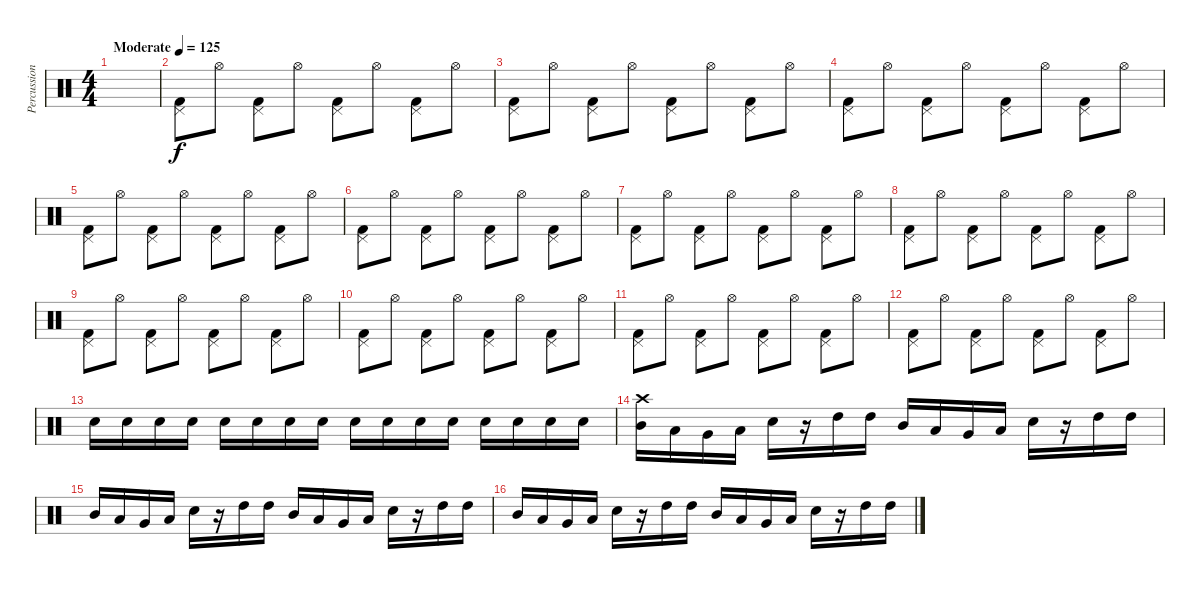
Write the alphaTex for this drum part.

\track ("Percussion" "Percussion") {instrument percussion}
\staff {score}
\articulation defaults
\ts (4 4)
\tempo (125 "Moderate")
\clef neutral
\ks c
|
("Pedal Hi-Hat (hit)" "Kick (hit) 2").8 "Hi-Hat (open)".8 ("Pedal Hi-Hat (hit)" "Kick (hit) 2").8 "Hi-Hat (open)".8 ("Pedal Hi-Hat (hit)" "Kick (hit) 2").8 "Hi-Hat (open)".8 ("Pedal Hi-Hat (hit)" "Kick (hit) 2").8 "Hi-Hat (open)".8 |
("Pedal Hi-Hat (hit)" "Kick (hit) 2").8 "Hi-Hat (open)".8 ("Pedal Hi-Hat (hit)" "Kick (hit) 2").8 "Hi-Hat (open)".8 ("Pedal Hi-Hat (hit)" "Kick (hit) 2").8 "Hi-Hat (open)".8 ("Pedal Hi-Hat (hit)" "Kick (hit) 2").8 "Hi-Hat (open)".8 |
("Pedal Hi-Hat (hit)" "Kick (hit) 2").8 "Hi-Hat (open)".8 ("Pedal Hi-Hat (hit)" "Kick (hit) 2").8 "Hi-Hat (open)".8 ("Pedal Hi-Hat (hit)" "Kick (hit) 2").8 "Hi-Hat (open)".8 ("Pedal Hi-Hat (hit)" "Kick (hit) 2").8 "Hi-Hat (open)".8 |
("Pedal Hi-Hat (hit)" "Kick (hit) 2").8 "Hi-Hat (open)".8 ("Pedal Hi-Hat (hit)" "Kick (hit) 2").8 "Hi-Hat (open)".8 ("Pedal Hi-Hat (hit)" "Kick (hit) 2").8 "Hi-Hat (open)".8 ("Pedal Hi-Hat (hit)" "Kick (hit) 2").8 "Hi-Hat (open)".8 |
("Pedal Hi-Hat (hit)" "Kick (hit) 2").8 "Hi-Hat (open)".8 ("Pedal Hi-Hat (hit)" "Kick (hit) 2").8 "Hi-Hat (open)".8 ("Pedal Hi-Hat (hit)" "Kick (hit) 2").8 "Hi-Hat (open)".8 ("Pedal Hi-Hat (hit)" "Kick (hit) 2").8 "Hi-Hat (open)".8 |
("Pedal Hi-Hat (hit)" "Kick (hit) 2").8 "Hi-Hat (open)".8 ("Pedal Hi-Hat (hit)" "Kick (hit) 2").8 "Hi-Hat (open)".8 ("Pedal Hi-Hat (hit)" "Kick (hit) 2").8 "Hi-Hat (open)".8 ("Pedal Hi-Hat (hit)" "Kick (hit) 2").8 "Hi-Hat (open)".8 |
("Pedal Hi-Hat (hit)" "Kick (hit) 2").8 "Hi-Hat (open)".8 ("Pedal Hi-Hat (hit)" "Kick (hit) 2").8 "Hi-Hat (open)".8 ("Pedal Hi-Hat (hit)" "Kick (hit) 2").8 "Hi-Hat (open)".8 ("Pedal Hi-Hat (hit)" "Kick (hit) 2").8 "Hi-Hat (open)".8 |
("Pedal Hi-Hat (hit)" "Kick (hit) 2").8 "Hi-Hat (open)".8 ("Pedal Hi-Hat (hit)" "Kick (hit) 2").8 "Hi-Hat (open)".8 ("Pedal Hi-Hat (hit)" "Kick (hit) 2").8 "Hi-Hat (open)".8 ("Pedal Hi-Hat (hit)" "Kick (hit) 2").8 "Hi-Hat (open)".8 |
("Pedal Hi-Hat (hit)" "Kick (hit) 2").8 "Hi-Hat (open)".8 ("Pedal Hi-Hat (hit)" "Kick (hit) 2").8 "Hi-Hat (open)".8 ("Pedal Hi-Hat (hit)" "Kick (hit) 2").8 "Hi-Hat (open)".8 ("Pedal Hi-Hat (hit)" "Kick (hit) 2").8 "Hi-Hat (open)".8 |
("Pedal Hi-Hat (hit)" "Kick (hit) 2").8 "Hi-Hat (open)".8 ("Pedal Hi-Hat (hit)" "Kick (hit) 2").8 "Hi-Hat (open)".8 ("Pedal Hi-Hat (hit)" "Kick (hit) 2").8 "Hi-Hat (open)".8 ("Pedal Hi-Hat (hit)" "Kick (hit) 2").8 "Hi-Hat (open)".8 |
("Pedal Hi-Hat (hit)" "Kick (hit) 2").8 "Hi-Hat (open)".8 ("Pedal Hi-Hat (hit)" "Kick (hit) 2").8 "Hi-Hat (open)".8 ("Pedal Hi-Hat (hit)" "Kick (hit) 2").8 "Hi-Hat (open)".8 ("Pedal Hi-Hat (hit)" "Kick (hit) 2").8 "Hi-Hat (open)".8 |
"Electric Snare (hit)".16 "Electric Snare (hit)".16 "Electric Snare (hit)".16 "Electric Snare (hit)".16 "Electric Snare (hit)".16 "Electric Snare (hit)".16 "Electric Snare (hit)".16 "Electric Snare (hit)".16 "Electric Snare (hit)".16 "Electric Snare (hit)".16 "Electric Snare (hit)".16 "Electric Snare (hit)".16 "Electric Snare (hit)".16 "Electric Snare (hit)".16 "Electric Snare (hit)".16 "Electric Snare (hit)".16 |
("Crash high (hit)" "Mid Tom (hit)").16 "Low Tom (hit)".16 "Very Low Tom (hit)".16 "Low Floor Tom (hit)".16 "Electric Snare (hit)".16 r.16 "High Tom (hit)".16 "High Tom (hit)".16 "Mid Tom (hit)".16 "Low Tom (hit)".16 "Very Low Tom (hit)".16 "Low Floor Tom (hit)".16 "Electric Snare (hit)".16 r.16 "High Tom (hit)".16 "High Tom (hit)".16 |
"Mid Tom (hit)".16 "Low Tom (hit)".16 "Very Low Tom (hit)".16 "Low Floor Tom (hit)".16 "Electric Snare (hit)".16 r.16 "High Tom (hit)".16 "High Tom (hit)".16 "Mid Tom (hit)".16 "Low Tom (hit)".16 "Very Low Tom (hit)".16 "Low Floor Tom (hit)".16 "Electric Snare (hit)".16 r.16 "High Tom (hit)".16 "High Tom (hit)".16 |
"Mid Tom (hit)".16 "Low Tom (hit)".16 "Very Low Tom (hit)".16 "Low Floor Tom (hit)".16 "Electric Snare (hit)".16 r.16 "High Tom (hit)".16 "High Tom (hit)".16 "Mid Tom (hit)".16 "Low Tom (hit)".16 "Very Low Tom (hit)".16 "Low Floor Tom (hit)".16 "Electric Snare (hit)".16 r.16 "High Tom (hit)".16 "High Tom (hit)".16
